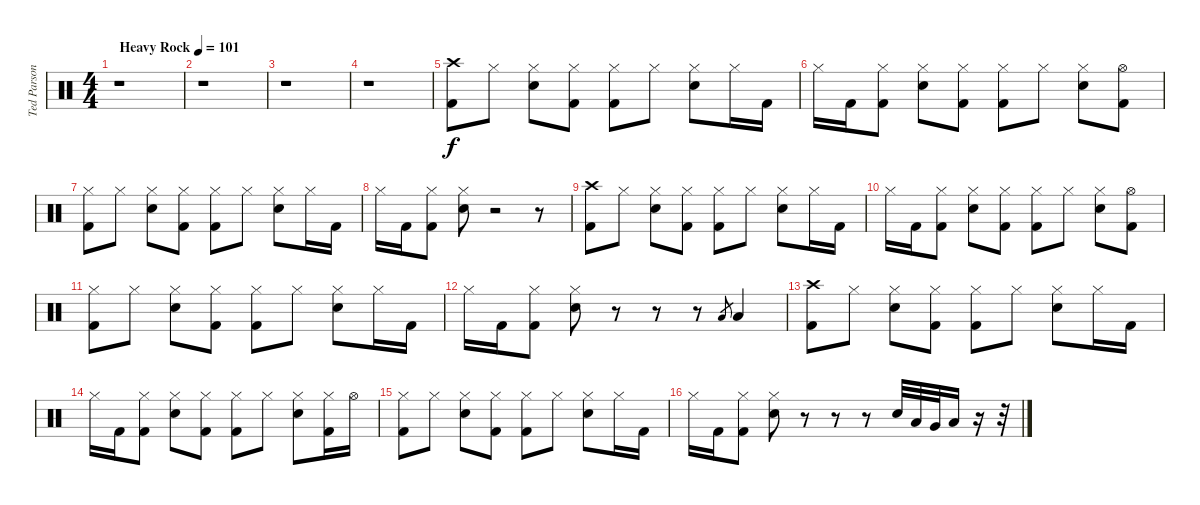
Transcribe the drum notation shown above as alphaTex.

\track ("Ted Parsons" "Ted Parson") {instrument percussion}
\staff {score}
\articulation defaults
\ts (4 4)
\tempo (101 "Heavy Rock")
\clef neutral
\ks c
r.1{dy f} |
r.1 |
r.1 |
r.1 |
("Crash high (hit)" "Kick (hit) 2").8 "Hi-Hat (closed)".8 ("Hi-Hat (closed)" "Electric Snare (hit)").8 ("Hi-Hat (closed)" "Kick (hit) 2").8 ("Hi-Hat (closed)" "Kick (hit) 2").8 "Hi-Hat (closed)".8 ("Hi-Hat (closed)" "Electric Snare (hit)").8 "Hi-Hat (closed)".16 "Kick (hit) 2".16 |
"Hi-Hat (closed)".16 "Kick (hit) 2".16 ("Hi-Hat (closed)" "Kick (hit) 2").8 ("Hi-Hat (closed)" "Electric Snare (hit)").8 ("Hi-Hat (closed)" "Kick (hit) 2").8 ("Hi-Hat (closed)" "Kick (hit) 2").8 "Hi-Hat (closed)".8 ("Hi-Hat (closed)" "Electric Snare (hit)").8 ("Hi-Hat (open)" "Kick (hit) 2").8 |
("Hi-Hat (closed)" "Kick (hit) 2").8 "Hi-Hat (closed)".8 ("Hi-Hat (closed)" "Electric Snare (hit)").8 ("Hi-Hat (closed)" "Kick (hit) 2").8 ("Hi-Hat (closed)" "Kick (hit) 2").8 "Hi-Hat (closed)".8 ("Hi-Hat (closed)" "Electric Snare (hit)").8 "Hi-Hat (closed)".16 "Kick (hit) 2".16 |
"Hi-Hat (closed)".16 "Kick (hit) 2".16 ("Hi-Hat (closed)" "Kick (hit) 2").8 ("Hi-Hat (closed)" "Electric Snare (hit)").8 r.2 r.8 |
("Crash high (hit)" "Kick (hit) 2").8 "Hi-Hat (closed)".8 ("Hi-Hat (closed)" "Electric Snare (hit)").8 ("Hi-Hat (closed)" "Kick (hit) 2").8 ("Hi-Hat (closed)" "Kick (hit) 2").8 "Hi-Hat (closed)".8 ("Hi-Hat (closed)" "Electric Snare (hit)").8 "Hi-Hat (closed)".16 "Kick (hit) 2".16 |
"Hi-Hat (closed)".16 "Kick (hit) 2".16 ("Hi-Hat (closed)" "Kick (hit) 2").8 ("Hi-Hat (closed)" "Electric Snare (hit)").8 ("Hi-Hat (closed)" "Kick (hit) 2").8 ("Hi-Hat (closed)" "Kick (hit) 2").8 "Hi-Hat (closed)".8 ("Hi-Hat (closed)" "Electric Snare (hit)").8 ("Hi-Hat (open)" "Kick (hit) 2").8 |
("Hi-Hat (closed)" "Kick (hit) 2").8 "Hi-Hat (closed)".8 ("Hi-Hat (closed)" "Electric Snare (hit)").8 ("Hi-Hat (closed)" "Kick (hit) 2").8 ("Hi-Hat (closed)" "Kick (hit) 2").8 "Hi-Hat (closed)".8 ("Hi-Hat (closed)" "Electric Snare (hit)").8 "Hi-Hat (closed)".16 "Kick (hit) 2".16 |
"Hi-Hat (closed)".16 "Kick (hit) 2".16 ("Hi-Hat (closed)" "Kick (hit) 2").8 ("Hi-Hat (closed)" "Electric Snare (hit)").8 r.8 r.8 r.8 "Low Floor Tom (hit)".8{gr} "Low Floor Tom (hit)".4 |
("Crash high (hit)" "Kick (hit) 2").8 "Hi-Hat (closed)".8 ("Hi-Hat (closed)" "Electric Snare (hit)").8 ("Hi-Hat (closed)" "Kick (hit) 2").8 ("Hi-Hat (closed)" "Kick (hit) 2").8 "Hi-Hat (closed)".8 ("Hi-Hat (closed)" "Electric Snare (hit)").8 "Hi-Hat (closed)".16 "Kick (hit) 2".16 |
"Hi-Hat (closed)".16 "Kick (hit) 2".16 ("Hi-Hat (closed)" "Kick (hit) 2").8 ("Hi-Hat (closed)" "Electric Snare (hit)").8 ("Hi-Hat (closed)" "Kick (hit) 2").8 ("Hi-Hat (closed)" "Kick (hit) 2").8 "Hi-Hat (closed)".8 ("Hi-Hat (closed)" "Electric Snare (hit)").8 ("Hi-Hat (closed)" "Kick (hit) 2").16 "Hi-Hat (open)".16 |
("Hi-Hat (closed)" "Kick (hit) 2").8 "Hi-Hat (closed)".8 ("Hi-Hat (closed)" "Electric Snare (hit)").8 ("Hi-Hat (closed)" "Kick (hit) 2").8 ("Hi-Hat (closed)" "Kick (hit) 2").8 "Hi-Hat (closed)".8 ("Hi-Hat (closed)" "Electric Snare (hit)").8 "Hi-Hat (closed)".16 "Kick (hit) 2".16 |
"Hi-Hat (closed)".16 "Kick (hit) 2".16 ("Hi-Hat (closed)" "Kick (hit) 2").8 ("Hi-Hat (closed)" "Electric Snare (hit)").8 r.8 r.8 r.8 "Electric Snare (hit)".32 "Low Tom (hit)".32 "Very Low Tom (hit)".32 "Low Floor Tom (hit)".16 r.16 r.32
